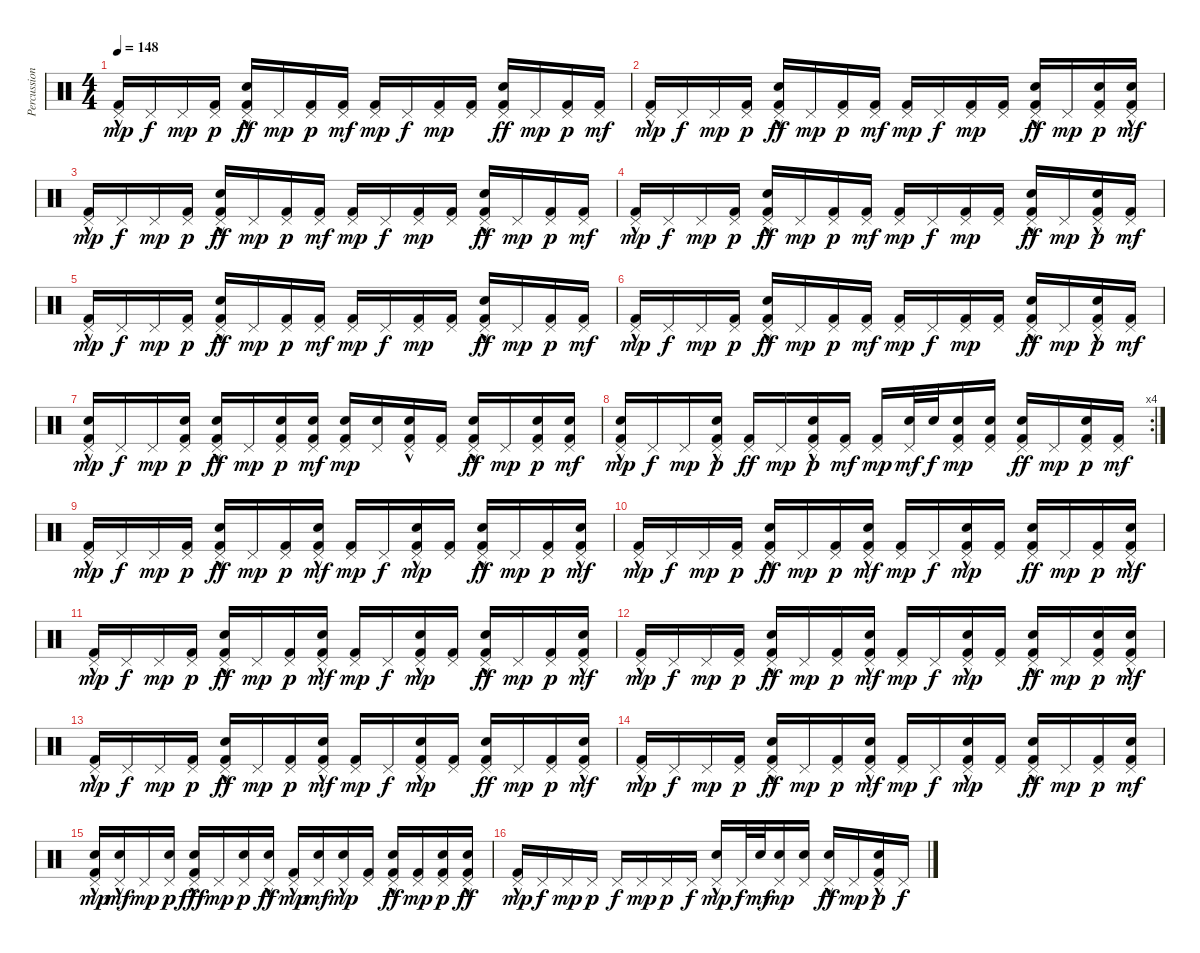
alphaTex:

\track ("Percussion" "Percussion") {instrument percussion}
\staff {score}
\articulation defaults
\ts (4 4)
\tempo 148
\clef neutral
\ks c
("Kick (hit) 2"{hac} "Pedal Hi-Hat (hit)").16{dy mp} "Pedal Hi-Hat (hit)".16{dy f} "Pedal Hi-Hat (hit)".16{dy mp} ("Kick (hit) 2" "Pedal Hi-Hat (hit)").16{dy p} ("Electric Snare (hit)"{hac} "Kick (hit) 2" "Pedal Hi-Hat (hit)").16{dy ff} "Pedal Hi-Hat (hit)".16{dy mp} ("Kick (hit) 2" "Pedal Hi-Hat (hit)").16{dy p} ("Kick (hit) 2" "Pedal Hi-Hat (hit)").16{dy mf} ("Kick (hit) 2" "Pedal Hi-Hat (hit)").16{dy mp} "Pedal Hi-Hat (hit)".16{dy f} ("Kick (hit) 2" "Pedal Hi-Hat (hit)").16{dy mp} ("Kick (hit) 2" "Pedal Hi-Hat (hit)").16 ("Electric Snare (hit)" "Kick (hit) 2" "Pedal Hi-Hat (hit)").16{dy ff} "Pedal Hi-Hat (hit)".16{dy mp} ("Kick (hit) 2" "Pedal Hi-Hat (hit)").16{dy p} ("Kick (hit) 2" "Pedal Hi-Hat (hit)").16{dy mf} |
("Kick (hit) 2"{hac} "Pedal Hi-Hat (hit)").16{dy mp} "Pedal Hi-Hat (hit)".16{dy f} "Pedal Hi-Hat (hit)".16{dy mp} ("Kick (hit) 2" "Pedal Hi-Hat (hit)").16{dy p} ("Electric Snare (hit)"{hac} "Kick (hit) 2" "Pedal Hi-Hat (hit)").16{dy ff} "Pedal Hi-Hat (hit)".16{dy mp} ("Kick (hit) 2" "Pedal Hi-Hat (hit)").16{dy p} ("Kick (hit) 2" "Pedal Hi-Hat (hit)").16{dy mf} ("Kick (hit) 2" "Pedal Hi-Hat (hit)").16{dy mp} "Pedal Hi-Hat (hit)".16{dy f} ("Kick (hit) 2" "Pedal Hi-Hat (hit)").16{dy mp} ("Kick (hit) 2" "Pedal Hi-Hat (hit)").16 ("Electric Snare (hit)"{hac} "Kick (hit) 2" "Pedal Hi-Hat (hit)").16{dy ff} "Pedal Hi-Hat (hit)".16{dy mp} ("Electric Snare (hit)" "Kick (hit) 2" "Pedal Hi-Hat (hit)").16{dy p} ("Electric Snare (hit)"{hac} "Kick (hit) 2" "Pedal Hi-Hat (hit)").16{dy mf} |
("Kick (hit) 2"{hac} "Pedal Hi-Hat (hit)").16{dy mp} "Pedal Hi-Hat (hit)".16{dy f} "Pedal Hi-Hat (hit)".16{dy mp} ("Kick (hit) 2" "Pedal Hi-Hat (hit)").16{dy p} ("Electric Snare (hit)"{hac} "Kick (hit) 2" "Pedal Hi-Hat (hit)").16{dy ff} "Pedal Hi-Hat (hit)".16{dy mp} ("Kick (hit) 2" "Pedal Hi-Hat (hit)").16{dy p} ("Kick (hit) 2" "Pedal Hi-Hat (hit)").16{dy mf} ("Kick (hit) 2" "Pedal Hi-Hat (hit)").16{dy mp} "Pedal Hi-Hat (hit)".16{dy f} ("Kick (hit) 2" "Pedal Hi-Hat (hit)").16{dy mp} ("Kick (hit) 2" "Pedal Hi-Hat (hit)").16 ("Electric Snare (hit)"{hac} "Kick (hit) 2" "Pedal Hi-Hat (hit)").16{dy ff} "Pedal Hi-Hat (hit)".16{dy mp} ("Kick (hit) 2" "Pedal Hi-Hat (hit)").16{dy p} ("Kick (hit) 2" "Pedal Hi-Hat (hit)").16{dy mf} |
("Kick (hit) 2"{hac} "Pedal Hi-Hat (hit)").16{dy mp} "Pedal Hi-Hat (hit)".16{dy f} "Pedal Hi-Hat (hit)".16{dy mp} ("Kick (hit) 2" "Pedal Hi-Hat (hit)").16{dy p} ("Electric Snare (hit)"{hac} "Kick (hit) 2" "Pedal Hi-Hat (hit)").16{dy ff} "Pedal Hi-Hat (hit)".16{dy mp} ("Kick (hit) 2" "Pedal Hi-Hat (hit)").16{dy p} ("Kick (hit) 2" "Pedal Hi-Hat (hit)").16{dy mf} ("Kick (hit) 2" "Pedal Hi-Hat (hit)").16{dy mp} "Pedal Hi-Hat (hit)".16{dy f} ("Kick (hit) 2" "Pedal Hi-Hat (hit)").16{dy mp} ("Kick (hit) 2" "Pedal Hi-Hat (hit)").16 ("Electric Snare (hit)"{hac} "Kick (hit) 2" "Pedal Hi-Hat (hit)").16{dy ff} "Pedal Hi-Hat (hit)".16{dy mp} ("Electric Snare (hit)"{hac} "Kick (hit) 2" "Pedal Hi-Hat (hit)").16{dy p} ("Kick (hit) 2" "Pedal Hi-Hat (hit)").16{dy mf} |
("Kick (hit) 2"{hac} "Pedal Hi-Hat (hit)").16{dy mp} "Pedal Hi-Hat (hit)".16{dy f} "Pedal Hi-Hat (hit)".16{dy mp} ("Kick (hit) 2" "Pedal Hi-Hat (hit)").16{dy p} ("Electric Snare (hit)"{hac} "Kick (hit) 2" "Pedal Hi-Hat (hit)").16{dy ff} "Pedal Hi-Hat (hit)".16{dy mp} ("Kick (hit) 2" "Pedal Hi-Hat (hit)").16{dy p} ("Kick (hit) 2" "Pedal Hi-Hat (hit)").16{dy mf} ("Kick (hit) 2" "Pedal Hi-Hat (hit)").16{dy mp} "Pedal Hi-Hat (hit)".16{dy f} ("Kick (hit) 2" "Pedal Hi-Hat (hit)").16{dy mp} ("Kick (hit) 2" "Pedal Hi-Hat (hit)").16 ("Electric Snare (hit)"{hac} "Kick (hit) 2" "Pedal Hi-Hat (hit)").16{dy ff} "Pedal Hi-Hat (hit)".16{dy mp} ("Kick (hit) 2" "Pedal Hi-Hat (hit)").16{dy p} ("Kick (hit) 2" "Pedal Hi-Hat (hit)").16{dy mf} |
("Kick (hit) 2"{hac} "Pedal Hi-Hat (hit)").16{dy mp} "Pedal Hi-Hat (hit)".16{dy f} "Pedal Hi-Hat (hit)".16{dy mp} ("Kick (hit) 2" "Pedal Hi-Hat (hit)").16{dy p} ("Electric Snare (hit)"{hac} "Kick (hit) 2" "Pedal Hi-Hat (hit)").16{dy ff} "Pedal Hi-Hat (hit)".16{dy mp} ("Kick (hit) 2" "Pedal Hi-Hat (hit)").16{dy p} ("Kick (hit) 2" "Pedal Hi-Hat (hit)").16{dy mf} ("Kick (hit) 2" "Pedal Hi-Hat (hit)").16{dy mp} "Pedal Hi-Hat (hit)".16{dy f} ("Kick (hit) 2" "Pedal Hi-Hat (hit)").16{dy mp} ("Kick (hit) 2" "Pedal Hi-Hat (hit)").16 ("Electric Snare (hit)"{hac} "Kick (hit) 2" "Pedal Hi-Hat (hit)").16{dy ff} "Pedal Hi-Hat (hit)".16{dy mp} ("Electric Snare (hit)"{hac} "Kick (hit) 2" "Pedal Hi-Hat (hit)").16{dy p} ("Kick (hit) 2" "Pedal Hi-Hat (hit)").16{dy mf} |
("Electric Snare (hit)"{hac} "Kick (hit) 2"{hac} "Pedal Hi-Hat (hit)").16{dy mp} "Pedal Hi-Hat (hit)".16{dy f} "Pedal Hi-Hat (hit)".16{dy mp} ("Electric Snare (hit)" "Kick (hit) 2" "Pedal Hi-Hat (hit)").16{dy p} ("Electric Snare (hit)"{hac} "Kick (hit) 2" "Pedal Hi-Hat (hit)").16{dy ff} "Pedal Hi-Hat (hit)".16{dy mp} ("Electric Snare (hit)" "Kick (hit) 2" "Pedal Hi-Hat (hit)").16{dy p} ("Electric Snare (hit)" "Kick (hit) 2" "Pedal Hi-Hat (hit)").16{dy mf} ("Electric Snare (hit)" "Kick (hit) 2" "Pedal Hi-Hat (hit)").16{dy mp} ("Electric Snare (hit)" "Pedal Hi-Hat (hit)").16 ("Electric Snare (hit)"{hac} "Kick (hit) 2" "Pedal Hi-Hat (hit)").16 ("Kick (hit) 2" "Pedal Hi-Hat (hit)").16 ("Electric Snare (hit)"{hac} "Kick (hit) 2" "Pedal Hi-Hat (hit)").16{dy ff} "Pedal Hi-Hat (hit)".16{dy mp} ("Electric Snare (hit)" "Kick (hit) 2" "Pedal Hi-Hat (hit)").16{dy p} ("Electric Snare (hit)" "Kick (hit) 2" "Pedal Hi-Hat (hit)").16{dy mf} |
\rc 4
("Electric Snare (hit)"{hac} "Kick (hit) 2"{hac} "Pedal Hi-Hat (hit)").16{dy mp} "Pedal Hi-Hat (hit)".16{dy f} "Pedal Hi-Hat (hit)".16{dy mp} ("Electric Snare (hit)"{hac} "Kick (hit) 2" "Pedal Hi-Hat (hit)").16{dy p} ("Kick (hit) 2" "Pedal Hi-Hat (hit)").16{dy ff} "Pedal Hi-Hat (hit)".16{dy mp} ("Electric Snare (hit)"{hac} "Kick (hit) 2" "Pedal Hi-Hat (hit)").16{dy p} ("Kick (hit) 2" "Pedal Hi-Hat (hit)").16{dy mf} ("Kick (hit) 2" "Pedal Hi-Hat (hit)").16{dy mp} ("Electric Snare (hit)" "Pedal Hi-Hat (hit)").32{dy mf} "Electric Snare (hit)".32{dy f} ("Electric Snare (hit)" "Kick (hit) 2" "Pedal Hi-Hat (hit)").16{dy mp} ("Electric Snare (hit)" "Kick (hit) 2" "Pedal Hi-Hat (hit)").16 ("Electric Snare (hit)" "Kick (hit) 2" "Pedal Hi-Hat (hit)").16{dy ff} "Pedal Hi-Hat (hit)".16{dy mp} ("Electric Snare (hit)" "Kick (hit) 2" "Pedal Hi-Hat (hit)").16{dy p} ("Kick (hit) 2" "Pedal Hi-Hat (hit)").16{dy mf} |
("Kick (hit) 2"{hac} "Pedal Hi-Hat (hit)").16{dy mp volume 8} "Pedal Hi-Hat (hit)".16{dy f} "Pedal Hi-Hat (hit)".16{dy mp} ("Kick (hit) 2" "Pedal Hi-Hat (hit)").16{dy p} ("Electric Snare (hit)"{hac} "Kick (hit) 2" "Pedal Hi-Hat (hit)").16{dy ff} "Pedal Hi-Hat (hit)".16{dy mp} ("Kick (hit) 2" "Pedal Hi-Hat (hit)").16{dy p} ("Electric Snare (hit)"{hac} "Kick (hit) 2" "Pedal Hi-Hat (hit)").16{dy mf} ("Kick (hit) 2" "Pedal Hi-Hat (hit)").16{dy mp} "Pedal Hi-Hat (hit)".16{dy f} ("Electric Snare (hit)"{hac} "Kick (hit) 2" "Pedal Hi-Hat (hit)").16{dy mp} ("Kick (hit) 2" "Pedal Hi-Hat (hit)").16 ("Electric Snare (hit)"{hac} "Kick (hit) 2" "Pedal Hi-Hat (hit)").16{dy ff} "Pedal Hi-Hat (hit)".16{dy mp} ("Kick (hit) 2" "Pedal Hi-Hat (hit)").16{dy p} ("Electric Snare (hit)"{hac} "Kick (hit) 2" "Pedal Hi-Hat (hit)").16{dy mf} |
("Kick (hit) 2"{hac} "Pedal Hi-Hat (hit)").16{dy mp volume 8} "Pedal Hi-Hat (hit)".16{dy f} "Pedal Hi-Hat (hit)".16{dy mp} ("Kick (hit) 2" "Pedal Hi-Hat (hit)").16{dy p} ("Electric Snare (hit)"{hac} "Kick (hit) 2" "Pedal Hi-Hat (hit)").16{dy ff} "Pedal Hi-Hat (hit)".16{dy mp} ("Kick (hit) 2" "Pedal Hi-Hat (hit)").16{dy p} ("Electric Snare (hit)"{hac} "Kick (hit) 2" "Pedal Hi-Hat (hit)").16{dy mf} ("Kick (hit) 2" "Pedal Hi-Hat (hit)").16{dy mp} "Pedal Hi-Hat (hit)".16{dy f} ("Electric Snare (hit)"{hac} "Kick (hit) 2" "Pedal Hi-Hat (hit)").16{dy mp} ("Kick (hit) 2" "Pedal Hi-Hat (hit)").16 ("Electric Snare (hit)" "Kick (hit) 2" "Pedal Hi-Hat (hit)").16{dy ff} "Pedal Hi-Hat (hit)".16{dy mp} ("Kick (hit) 2" "Pedal Hi-Hat (hit)").16{dy p} ("Electric Snare (hit)"{hac} "Kick (hit) 2" "Pedal Hi-Hat (hit)").16{dy mf} |
("Kick (hit) 2"{hac} "Pedal Hi-Hat (hit)").16{dy mp volume 5} "Pedal Hi-Hat (hit)".16{dy f} "Pedal Hi-Hat (hit)".16{dy mp} ("Kick (hit) 2" "Pedal Hi-Hat (hit)").16{dy p} ("Electric Snare (hit)"{hac} "Kick (hit) 2" "Pedal Hi-Hat (hit)").16{dy ff} "Pedal Hi-Hat (hit)".16{dy mp} ("Kick (hit) 2" "Pedal Hi-Hat (hit)").16{dy p} ("Electric Snare (hit)"{hac} "Kick (hit) 2" "Pedal Hi-Hat (hit)").16{dy mf} ("Kick (hit) 2" "Pedal Hi-Hat (hit)").16{dy mp} "Pedal Hi-Hat (hit)".16{dy f} ("Electric Snare (hit)"{hac} "Kick (hit) 2" "Pedal Hi-Hat (hit)").16{dy mp} ("Kick (hit) 2" "Pedal Hi-Hat (hit)").16 ("Electric Snare (hit)"{hac} "Kick (hit) 2" "Pedal Hi-Hat (hit)").16{dy ff} "Pedal Hi-Hat (hit)".16{dy mp} ("Kick (hit) 2" "Pedal Hi-Hat (hit)").16{dy p} ("Electric Snare (hit)"{hac} "Kick (hit) 2" "Pedal Hi-Hat (hit)").16{dy mf} |
("Kick (hit) 2"{hac} "Pedal Hi-Hat (hit)").16{dy mp volume 4} "Pedal Hi-Hat (hit)".16{dy f} "Pedal Hi-Hat (hit)".16{dy mp} ("Kick (hit) 2" "Pedal Hi-Hat (hit)").16{dy p} ("Electric Snare (hit)"{hac} "Kick (hit) 2" "Pedal Hi-Hat (hit)").16{dy ff} "Pedal Hi-Hat (hit)".16{dy mp} ("Kick (hit) 2" "Pedal Hi-Hat (hit)").16{dy p} ("Electric Snare (hit)"{hac} "Kick (hit) 2" "Pedal Hi-Hat (hit)").16{dy mf} ("Kick (hit) 2" "Pedal Hi-Hat (hit)").16{dy mp} "Pedal Hi-Hat (hit)".16{dy f} ("Electric Snare (hit)"{hac} "Kick (hit) 2" "Pedal Hi-Hat (hit)").16{dy mp} ("Kick (hit) 2" "Pedal Hi-Hat (hit)").16 ("Electric Snare (hit)"{hac} "Kick (hit) 2" "Pedal Hi-Hat (hit)").16{dy ff} "Pedal Hi-Hat (hit)".16{dy mp} ("Electric Snare (hit)" "Kick (hit) 2" "Pedal Hi-Hat (hit)").16{dy p} ("Electric Snare (hit)"{hac} "Kick (hit) 2" "Pedal Hi-Hat (hit)").16{dy mf} |
("Kick (hit) 2"{hac} "Pedal Hi-Hat (hit)").16{dy mp volume 2} "Pedal Hi-Hat (hit)".16{dy f} "Pedal Hi-Hat (hit)".16{dy mp} ("Kick (hit) 2" "Pedal Hi-Hat (hit)").16{dy p} ("Electric Snare (hit)"{hac} "Kick (hit) 2" "Pedal Hi-Hat (hit)").16{dy ff} "Pedal Hi-Hat (hit)".16{dy mp} ("Kick (hit) 2" "Pedal Hi-Hat (hit)").16{dy p} ("Electric Snare (hit)"{hac} "Kick (hit) 2" "Pedal Hi-Hat (hit)").16{dy mf} ("Kick (hit) 2" "Pedal Hi-Hat (hit)").16{dy mp} "Pedal Hi-Hat (hit)".16{dy f} ("Electric Snare (hit)"{hac} "Kick (hit) 2" "Pedal Hi-Hat (hit)").16{dy mp} ("Kick (hit) 2" "Pedal Hi-Hat (hit)").16 ("Electric Snare (hit)" "Kick (hit) 2" "Pedal Hi-Hat (hit)").16{dy ff} "Pedal Hi-Hat (hit)".16{dy mp} ("Kick (hit) 2" "Pedal Hi-Hat (hit)").16{dy p} ("Electric Snare (hit)"{hac} "Kick (hit) 2" "Pedal Hi-Hat (hit)").16{dy mf} |
("Kick (hit) 2"{hac} "Pedal Hi-Hat (hit)").16{dy mp volume 1} "Pedal Hi-Hat (hit)".16{dy f} "Pedal Hi-Hat (hit)".16{dy mp} ("Kick (hit) 2" "Pedal Hi-Hat (hit)").16{dy p} ("Electric Snare (hit)"{hac} "Kick (hit) 2" "Pedal Hi-Hat (hit)").16{dy ff} "Pedal Hi-Hat (hit)".16{dy mp} ("Kick (hit) 2" "Pedal Hi-Hat (hit)").16{dy p} ("Electric Snare (hit)"{hac} "Kick (hit) 2" "Pedal Hi-Hat (hit)").16{dy mf} ("Kick (hit) 2" "Pedal Hi-Hat (hit)").16{dy mp} "Pedal Hi-Hat (hit)".16{dy f} ("Electric Snare (hit)"{hac} "Kick (hit) 2" "Pedal Hi-Hat (hit)").16{dy mp} ("Kick (hit) 2" "Pedal Hi-Hat (hit)").16 ("Electric Snare (hit)"{hac} "Kick (hit) 2" "Pedal Hi-Hat (hit)").16{dy ff} "Pedal Hi-Hat (hit)".16{dy mp} ("Kick (hit) 2" "Pedal Hi-Hat (hit)").16{dy p} ("Electric Snare (hit)" "Kick (hit) 2" "Pedal Hi-Hat (hit)").16{dy mf} |
("Electric Snare (hit)" "Kick (hit) 2"{hac} "Pedal Hi-Hat (hit)").16{dy mp} ("Electric Snare (hit)"{hac} "Pedal Hi-Hat (hit)").16{dy mf} "Pedal Hi-Hat (hit)".16{dy mp} ("Electric Snare (hit)" "Pedal Hi-Hat (hit)").16{dy p} ("Kick (hit) 2"{hac} "Electric Snare (hit)"{hac} "Pedal Hi-Hat (hit)").16{dy fff} "Pedal Hi-Hat (hit)".16{dy mp} ("Electric Snare (hit)" "Pedal Hi-Hat (hit)").16{dy p} ("Electric Snare (hit)"{hac} "Pedal Hi-Hat (hit)").16{dy ff} ("Kick (hit) 2"{hac} "Pedal Hi-Hat (hit)").16{dy mp} ("Electric Snare (hit)" "Pedal Hi-Hat (hit)").16{dy mf} ("Electric Snare (hit)"{hac} "Pedal Hi-Hat (hit)").16{dy mp} ("Kick (hit) 2" "Pedal Hi-Hat (hit)").16 ("Electric Snare (hit)"{hac} "Kick (hit) 2" "Pedal Hi-Hat (hit)").16{dy ff} ("Kick (hit) 2" "Pedal Hi-Hat (hit)").16{dy mp} ("Electric Snare (hit)" "Kick (hit) 2" "Pedal Hi-Hat (hit)").16{dy p} ("Electric Snare (hit)"{hac} "Kick (hit) 2" "Pedal Hi-Hat (hit)").16{dy ff} |
("Kick (hit) 2"{hac} "Pedal Hi-Hat (hit)").16{dy mp volume 1} "Pedal Hi-Hat (hit)".16{dy f} "Pedal Hi-Hat (hit)".16{dy mp} "Pedal Hi-Hat (hit)".16{dy p} "Pedal Hi-Hat (hit)".16{dy f} "Pedal Hi-Hat (hit)".16{dy mp} "Pedal Hi-Hat (hit)".16{dy p} "Pedal Hi-Hat (hit)".16{dy f} ("Electric Snare (hit)"{hac} "Pedal Hi-Hat (hit)").16{dy mp} "Pedal Hi-Hat (hit)".32{dy f} "Electric Snare (hit)".32{dy mf} ("Electric Snare (hit)" "Pedal Hi-Hat (hit)").16{dy mp} ("Electric Snare (hit)" "Pedal Hi-Hat (hit)").16 ("Electric Snare (hit)"{hac} "Pedal Hi-Hat (hit)").16{dy ff} "Pedal Hi-Hat (hit)".16{dy mp} ("Electric Snare (hit)"{hac} "Kick (hit) 2" "Pedal Hi-Hat (hit)").16{dy p} "Pedal Hi-Hat (hit)".16{dy f}
